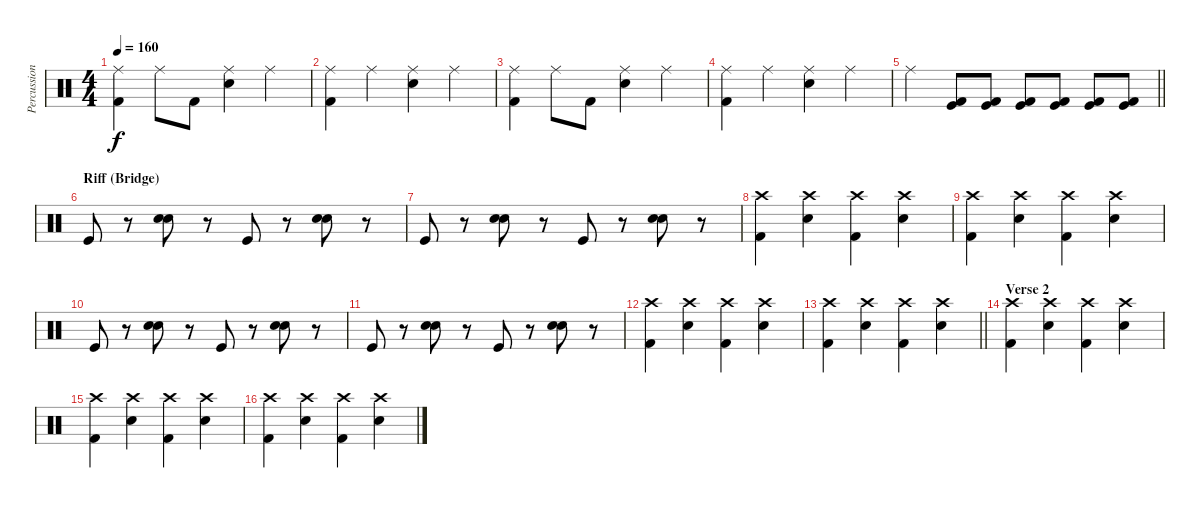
\track ("Percussion" "Percussion") {solo instrument percussion}
\staff {score}
\articulation defaults
\ts (4 4)
\tempo 160
\clef neutral
\ks c
("Ride (middle)" "Kick (hit) 2").4{dy f} "Ride (middle)".8 "Kick (hit) 2".8 ("Ride (middle)" "Snare (hit) 2").4 "Ride (middle)".4 |
("Ride (middle)" "Kick (hit) 2").4 "Ride (middle)".4 ("Ride (middle)" "Snare (hit) 2").4 "Ride (middle)".4 |
("Ride (middle)" "Kick (hit) 2").4 "Ride (middle)".8 "Kick (hit) 2".8 ("Ride (middle)" "Snare (hit) 2").4 "Ride (middle)".4 |
("Ride (middle)" "Kick (hit) 2").4 "Ride (middle)".4 ("Ride (middle)" "Snare (hit) 2").4 "Ride (middle)".4 |
\barLineRight lightlight "Ride (middle)".4
("Kick (hit) 2" "Kick (hit)").8 ("Kick (hit) 2" "Kick (hit)").8 ("Kick (hit) 2" "Kick (hit)").8 ("Kick (hit) 2" "Kick (hit)").8 ("Kick (hit) 2" "Kick (hit)").8 ("Kick (hit) 2" "Kick (hit)").8 |
\section ("" "Riff (Bridge)")
"Kick (hit)".8 r.8 ("Hand Clap (hit)" "Snare (hit) 2").8 r.8 "Kick (hit)".8 r.8 ("Hand Clap (hit)" "Snare (hit) 2").8 r.8 |
"Kick (hit)".8 r.8 ("Hand Clap (hit)" "Snare (hit) 2").8 r.8 "Kick (hit)".8 r.8 ("Hand Clap (hit)" "Snare (hit) 2").8 r.8 |
("Crash high (hit)" "Kick (hit) 2").4 ("Crash high (hit)" "Snare (hit) 2").4 ("Crash high (hit)" "Kick (hit) 2").4 ("Crash high (hit)" "Snare (hit) 2").4 |
("Crash high (hit)" "Kick (hit) 2").4 ("Crash high (hit)" "Snare (hit) 2").4 ("Crash high (hit)" "Kick (hit) 2").4 ("Crash high (hit)" "Snare (hit) 2").4 |
"Kick (hit)".8 r.8 ("Hand Clap (hit)" "Snare (hit) 2").8 r.8 "Kick (hit)".8 r.8 ("Hand Clap (hit)" "Snare (hit) 2").8 r.8 |
"Kick (hit)".8 r.8 ("Hand Clap (hit)" "Snare (hit) 2").8 r.8 "Kick (hit)".8 r.8 ("Hand Clap (hit)" "Snare (hit) 2").8 r.8 |
("Crash high (hit)" "Kick (hit) 2").4 ("Crash high (hit)" "Snare (hit) 2").4 ("Crash high (hit)" "Kick (hit) 2").4 ("Crash high (hit)" "Snare (hit) 2").4 |
\barLineRight lightlight
("Crash high (hit)" "Kick (hit) 2").4 ("Crash high (hit)" "Snare (hit) 2").4 ("Crash high (hit)" "Kick (hit) 2").4 ("Crash high (hit)" "Snare (hit) 2").4 |
\section ("" "Verse 2")
("Crash high (hit)" "Kick (hit) 2").4 ("Crash high (hit)" "Snare (hit) 2").4 ("Crash high (hit)" "Kick (hit) 2").4 ("Crash high (hit)" "Snare (hit) 2").4 |
("Crash high (hit)" "Kick (hit) 2").4 ("Crash high (hit)" "Snare (hit) 2").4 ("Crash high (hit)" "Kick (hit) 2").4 ("Crash high (hit)" "Snare (hit) 2").4 |
("Crash high (hit)" "Kick (hit) 2").4 ("Crash high (hit)" "Snare (hit) 2").4 ("Crash high (hit)" "Kick (hit) 2").4 ("Crash high (hit)" "Snare (hit) 2").4
